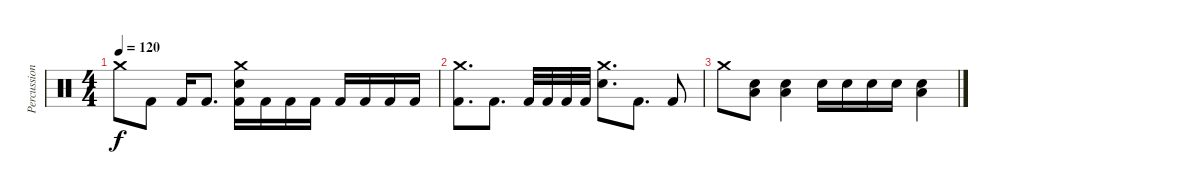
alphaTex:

\track ("Percussion" "Percussion") {instrument percussion}
\staff {score}
\articulation defaults
\ts (4 4)
\tempo 120
\clef neutral
\ks c "Crash medium (hit)".8{dy f} "Kick (hit) 2".8 "Kick (hit) 2".16 "Kick (hit) 2".8{d}
("Crash medium (hit)" "Electric Snare (hit)" "Kick (hit) 2").16 "Kick (hit) 2".16 "Kick (hit) 2".16 "Kick (hit) 2".16 "Kick (hit) 2".16 "Kick (hit) 2".16 "Kick (hit) 2".16 "Kick (hit) 2".16 |
("Crash medium (hit)" "Kick (hit) 2").8{d} "Kick (hit) 2".8{d} "Kick (hit) 2".32 "Kick (hit) 2".32 "Kick (hit) 2".32 "Kick (hit) 2".32 ("Crash medium (hit)" "Electric Snare (hit)").8{d} "Kick (hit) 2".8{d} "Kick (hit) 2".8 |
"Crash medium (hit)".8 ("Low Floor Tom (hit)" "Electric Snare (hit)").8 ("Low Floor Tom (hit)" "Electric Snare (hit)").4 "Electric Snare (hit)".16 "Electric Snare (hit)".16 "Electric Snare (hit)".16 "Electric Snare (hit)".16 ("Low Floor Tom (hit)" "Electric Snare (hit)").4
